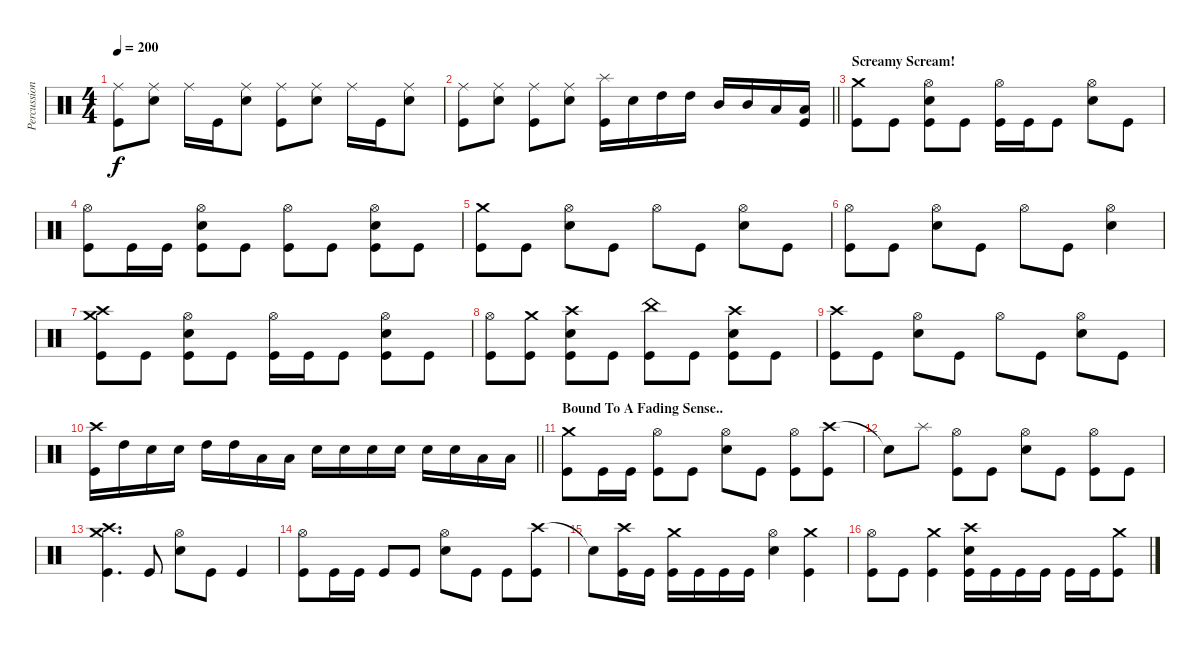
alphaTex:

\track ("Percussion" "Percussion") {instrument percussion}
\staff {score}
\articulation defaults
\ts (4 4)
\tempo 200
\clef neutral
\ks c
("Ride (middle)" "Kick (hit)").8{dy f} ("Ride (middle)" "Snare (hit) 2").8 "Ride (middle)".16 "Kick (hit)".16 ("Ride (middle)" "Snare (hit) 2").8 ("Ride (middle)" "Kick (hit)").8 ("Ride (middle)" "Snare (hit) 2").8 "Ride (middle)".16 "Kick (hit)".16 ("Ride (middle)" "Snare (hit) 2").8 |
\barLineRight lightlight
("Ride (middle)" "Kick (hit)").8 ("Ride (middle)" "Snare (hit) 2").8 ("Ride (middle)" "Kick (hit)").8 ("Ride (middle)" "Snare (hit) 2").8 ("Splash (hit)" "Kick (hit)").16 "Snare (hit) 2".16 "High Tom (hit)".16 "High Tom (hit)".16 "Mid Tom (hit)".16 "Mid Tom (hit)".16 "Low Tom (hit)".16 ("Low Tom (hit)" "Kick (hit)").16 |
\section ("" "Screamy Scream! ")
("Crash medium (hit)" "Kick (hit)").8 "Kick (hit)".8 ("Hi-Hat (open)" "Snare (hit) 2" "Kick (hit)").8 "Kick (hit)".8 ("Hi-Hat (open)" "Kick (hit)").16 "Kick (hit)".16 "Kick (hit)".8 ("Hi-Hat (open)" "Snare (hit) 2").8 "Kick (hit)".8 |
("Hi-Hat (open)" "Kick (hit)").8 "Kick (hit)".16 "Kick (hit)".16 ("Hi-Hat (open)" "Snare (hit) 2" "Kick (hit)").8 "Kick (hit)".8 ("Hi-Hat (open)" "Kick (hit)").8 "Kick (hit)".8 ("Hi-Hat (open)" "Snare (hit) 2" "Kick (hit)").8 "Kick (hit)".8 |
("Crash medium (hit)" "Kick (hit)").8 "Kick (hit)".8 ("Hi-Hat (open)" "Snare (hit) 2").8 "Kick (hit)".8 "Hi-Hat (open)".8 "Kick (hit)".8 ("Hi-Hat (open)" "Snare (hit) 2").8 "Kick (hit)".8 |
("Hi-Hat (open)" "Kick (hit)").8 "Kick (hit)".8 ("Hi-Hat (open)" "Snare (hit) 2").8 "Kick (hit)".8 "Hi-Hat (open)".8 "Kick (hit)".8 ("Hi-Hat (open)" "Snare (hit) 2").4 |
("Crash medium (hit)" "Crash high (hit)" "Kick (hit)").8 "Kick (hit)".8 ("Hi-Hat (open)" "Snare (hit) 2" "Kick (hit)").8 "Kick (hit)".8 ("Hi-Hat (open)" "Kick (hit)").16 "Kick (hit)".16 "Kick (hit)".8 ("Hi-Hat (open)" "Snare (hit) 2" "Kick (hit)").8 "Kick (hit)".8 |
("Hi-Hat (open)" "Kick (hit)").8 ("Crash medium (hit)" "Kick (hit)").8 ("Crash high (hit)" "Snare (hit) 2" "Kick (hit)").8 "Kick (hit)".8 ("China (hit)" "Kick (hit)").8 "Kick (hit)".8 ("Crash high (hit)" "Snare (hit) 2" "Kick (hit)").8 "Kick (hit)".8 |
("Crash high (hit)" "Kick (hit)").8 "Kick (hit)".8 ("Hi-Hat (open)" "Snare (hit) 2").8 "Kick (hit)".8 "Hi-Hat (open)".8 "Kick (hit)".8 ("Hi-Hat (open)" "Snare (hit) 2").8 "Kick (hit)".8 |
\barLineRight lightlight
("Crash high (hit)" "Kick (hit)").16 "High Tom (hit)".16 "Snare (hit) 2".16 "Snare (hit) 2".16 "High Tom (hit)".16 "High Tom (hit)".16 "Low Tom (hit)".16 "Low Tom (hit)".16 "Snare (hit) 2".16 "Snare (hit) 2".16 "Snare (hit) 2".16 "Snare (hit) 2".16 "Snare (hit) 2".16 "Snare (hit) 2".16 "Low Tom (hit)".16 "Low Tom (hit)".16 |
\section ("" "Bound To A Fading Sense..")
("Crash medium (hit)" "Kick (hit)").8 "Kick (hit)".16 "Kick (hit)".16 ("Hi-Hat (open)" "Kick (hit)").8 "Kick (hit)".8 ("Hi-Hat (open)" "Snare (hit) 2").8 "Kick (hit)".8 ("Hi-Hat (open)" "Kick (hit)").8 ("Crash high (hit)" "Kick (hit)").8 |
"Snare (hit)"{t}.8 "Splash (hit)".8 ("Hi-Hat (open)" "Kick (hit)").8 "Kick (hit)".8 ("Hi-Hat (open)" "Snare (hit) 2").8 "Kick (hit)".8 ("Hi-Hat (open)" "Kick (hit)").8 "Kick (hit)".8 |
("Crash medium (hit)" "Crash high (hit)" "Kick (hit)").4{d} "Kick (hit)".8 ("Hi-Hat (open)" "Snare (hit) 2").8 "Kick (hit)".8 "Kick (hit)".4 |
("Hi-Hat (open)" "Kick (hit)").8 "Kick (hit)".16 "Kick (hit)".16 "Kick (hit)".8 "Kick (hit)".8 ("Hi-Hat (open)" "Snare (hit) 2").8 "Kick (hit)".8 "Kick (hit)".8 ("Crash high (hit)" "Kick (hit)").8 |
"Snare (hit)"{t}.8 ("Crash high (hit)" "Kick (hit)").16 "Kick (hit)".16 ("Crash medium (hit)" "Kick (hit)").16 "Kick (hit)".16 "Kick (hit)".16 "Kick (hit)".16 ("Hi-Hat (open)" "Snare (hit) 2").4 ("Crash medium (hit)" "Kick (hit)").4 |
("Hi-Hat (open)" "Kick (hit)").8 "Kick (hit)".8 ("Crash medium (hit)" "Kick (hit)").4 ("Crash high (hit)" "Snare (hit) 2" "Kick (hit)").16 "Kick (hit)".16 "Kick (hit)".16 "Kick (hit)".16 "Kick (hit)".16 "Kick (hit)".16 ("Crash medium (hit)" "Kick (hit)").8
